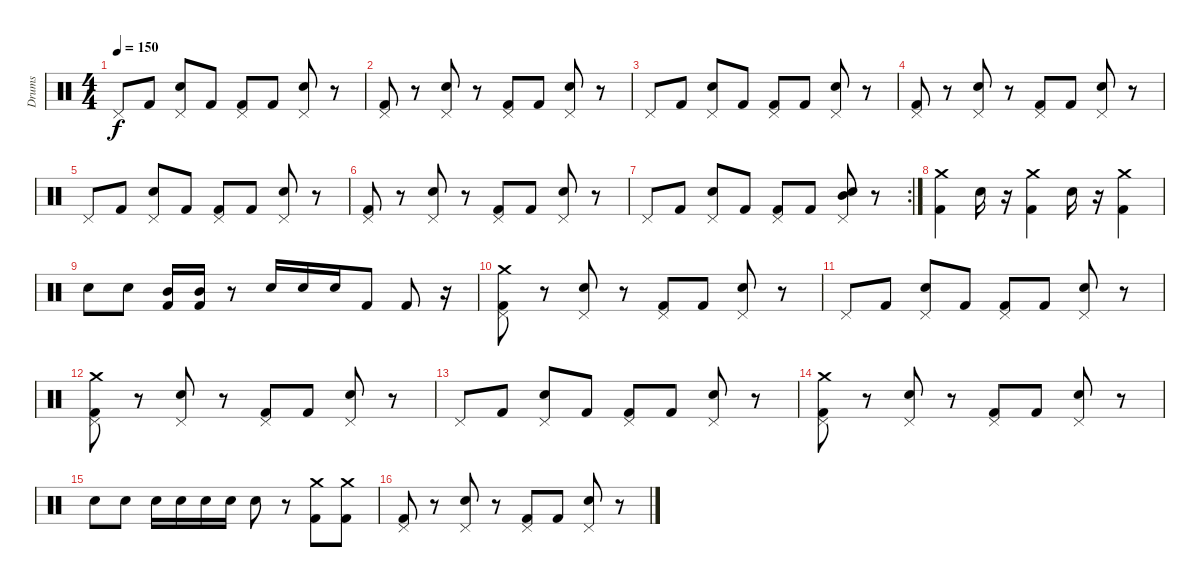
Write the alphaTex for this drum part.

\track ("Drums" "Drums") {instrument percussion}
\staff {score}
\articulation defaults
\ts (4 4)
\tempo 150
\clef neutral
\ks c "Pedal Hi-Hat (hit)".8{dy f} "Kick (hit) 2".8
("Pedal Hi-Hat (hit)" "Electric Snare (hit)").8 "Kick (hit) 2".8 ("Kick (hit) 2" "Pedal Hi-Hat (hit)").8 "Kick (hit) 2".8 ("Pedal Hi-Hat (hit)" "Electric Snare (hit)").8 r.8 |
("Kick (hit) 2" "Pedal Hi-Hat (hit)").8 r.8 ("Pedal Hi-Hat (hit)" "Electric Snare (hit)").8 r.8 ("Kick (hit) 2" "Pedal Hi-Hat (hit)").8 "Kick (hit) 2".8 ("Pedal Hi-Hat (hit)" "Electric Snare (hit)").8 r.8 |
"Pedal Hi-Hat (hit)".8 "Kick (hit) 2".8 ("Pedal Hi-Hat (hit)" "Electric Snare (hit)").8 "Kick (hit) 2".8 ("Kick (hit) 2" "Pedal Hi-Hat (hit)").8 "Kick (hit) 2".8 ("Pedal Hi-Hat (hit)" "Electric Snare (hit)").8 r.8 |
("Kick (hit) 2" "Pedal Hi-Hat (hit)").8 r.8 ("Pedal Hi-Hat (hit)" "Electric Snare (hit)").8 r.8 ("Kick (hit) 2" "Pedal Hi-Hat (hit)").8 "Kick (hit) 2".8 ("Pedal Hi-Hat (hit)" "Electric Snare (hit)").8 r.8 |
"Pedal Hi-Hat (hit)".8 "Kick (hit) 2".8 ("Pedal Hi-Hat (hit)" "Electric Snare (hit)").8 "Kick (hit) 2".8 ("Kick (hit) 2" "Pedal Hi-Hat (hit)").8 "Kick (hit) 2".8 ("Pedal Hi-Hat (hit)" "Electric Snare (hit)").8 r.8 |
("Kick (hit) 2" "Pedal Hi-Hat (hit)").8 r.8 ("Pedal Hi-Hat (hit)" "Electric Snare (hit)").8 r.8 ("Kick (hit) 2" "Pedal Hi-Hat (hit)").8 "Kick (hit) 2".8 ("Pedal Hi-Hat (hit)" "Electric Snare (hit)").8 r.8 |
\rc 2 "Pedal Hi-Hat (hit)".8 "Kick (hit) 2".8
("Pedal Hi-Hat (hit)" "Electric Snare (hit)").8 "Kick (hit) 2".8 ("Kick (hit) 2" "Pedal Hi-Hat (hit)").8 "Kick (hit) 2".8 ("Pedal Hi-Hat (hit)" "Mid Tom (hit)" "Electric Snare (hit)").8 r.8 |
("Kick (hit) 2" "Crash medium (hit)").4 "Electric Snare (hit)".16 r.16 ("Kick (hit) 2" "Crash medium (hit)").4 "Electric Snare (hit)".16 r.16 ("Kick (hit) 2" "Crash medium (hit)").4 |
"Electric Snare (hit)".8 "Electric Snare (hit)".8 ("Kick (hit) 2" "Mid Tom (hit)").16 ("Kick (hit) 2" "Mid Tom (hit)").16 r.8 "Electric Snare (hit)".16 "Electric Snare (hit)".16 "Electric Snare (hit)".16 "Kick (hit) 2".8 "Kick (hit) 2".8 r.16 |
("Kick (hit) 2" "Pedal Hi-Hat (hit)" "Crash medium (hit)").8 r.8 ("Pedal Hi-Hat (hit)" "Electric Snare (hit)").8 r.8 ("Kick (hit) 2" "Pedal Hi-Hat (hit)").8 "Kick (hit) 2".8 ("Pedal Hi-Hat (hit)" "Electric Snare (hit)").8 r.8 |
"Pedal Hi-Hat (hit)".8 "Kick (hit) 2".8 ("Pedal Hi-Hat (hit)" "Electric Snare (hit)").8 "Kick (hit) 2".8 ("Kick (hit) 2" "Pedal Hi-Hat (hit)").8 "Kick (hit) 2".8 ("Pedal Hi-Hat (hit)" "Electric Snare (hit)").8 r.8 |
("Kick (hit) 2" "Pedal Hi-Hat (hit)" "Crash medium (hit)").8 r.8 ("Pedal Hi-Hat (hit)" "Electric Snare (hit)").8 r.8 ("Kick (hit) 2" "Pedal Hi-Hat (hit)").8 "Kick (hit) 2".8 ("Pedal Hi-Hat (hit)" "Electric Snare (hit)").8 r.8 |
"Pedal Hi-Hat (hit)".8 "Kick (hit) 2".8 ("Pedal Hi-Hat (hit)" "Electric Snare (hit)").8 "Kick (hit) 2".8 ("Kick (hit) 2" "Pedal Hi-Hat (hit)").8 "Kick (hit) 2".8 ("Pedal Hi-Hat (hit)" "Electric Snare (hit)").8 r.8 |
("Kick (hit) 2" "Pedal Hi-Hat (hit)" "Crash medium (hit)").8 r.8 ("Pedal Hi-Hat (hit)" "Electric Snare (hit)").8 r.8 ("Kick (hit) 2" "Pedal Hi-Hat (hit)").8 "Kick (hit) 2".8 ("Pedal Hi-Hat (hit)" "Electric Snare (hit)").8 r.8 |
"Electric Snare (hit)".8 "Electric Snare (hit)".8 "Electric Snare (hit)".16 "Electric Snare (hit)".16 "Electric Snare (hit)".16 "Electric Snare (hit)".16 "Electric Snare (hit)".8 r.8 ("Kick (hit) 2" "Crash medium (hit)").8 ("Kick (hit) 2" "Crash medium (hit)").8 |
("Kick (hit) 2" "Pedal Hi-Hat (hit)").8 r.8 ("Pedal Hi-Hat (hit)" "Electric Snare (hit)").8 r.8 ("Kick (hit) 2" "Pedal Hi-Hat (hit)").8 "Kick (hit) 2".8 ("Pedal Hi-Hat (hit)" "Electric Snare (hit)").8 r.8
